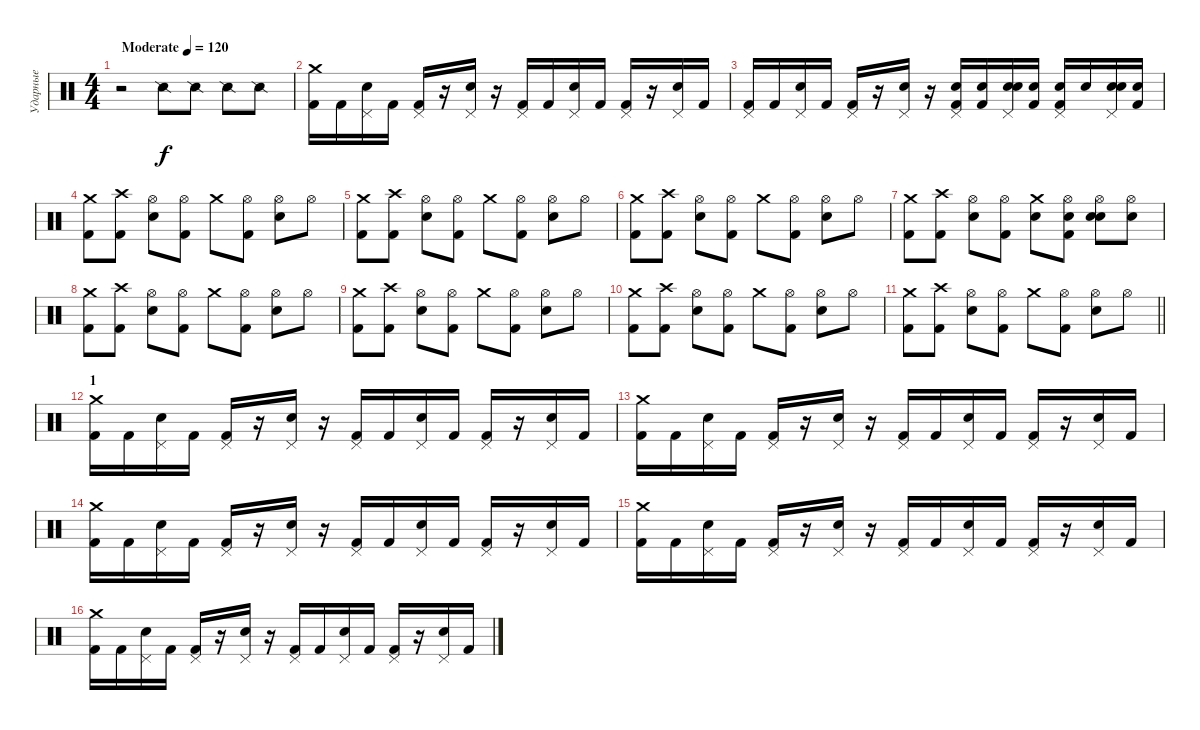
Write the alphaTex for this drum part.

\track ("Ударные" "Ударные") {instrument percussion}
\staff {score}
\articulation defaults
\ts (4 4)
\tempo (120 "Moderate")
\clef neutral
\ks c
r.2{dy f} "Snare (side stick) 2".8 "Snare (side stick) 2".8 "Snare (side stick) 2".8 "Snare (side stick) 2".8 |
("Crash medium (hit)" "Kick (hit) 2").16 "Kick (hit) 2".16 ("Pedal Hi-Hat (hit)" "Electric Snare (hit)").16 "Kick (hit) 2".16 ("Pedal Hi-Hat (hit)" "Kick (hit) 2").16 r.16 ("Pedal Hi-Hat (hit)" "Electric Snare (hit)").16 r.16 ("Pedal Hi-Hat (hit)" "Kick (hit) 2").16 "Kick (hit) 2".16 ("Pedal Hi-Hat (hit)" "Electric Snare (hit)").16 "Kick (hit) 2".16 ("Pedal Hi-Hat (hit)" "Kick (hit) 2").16 r.16 ("Pedal Hi-Hat (hit)" "Electric Snare (hit)").16 "Kick (hit) 2".16 |
("Pedal Hi-Hat (hit)" "Kick (hit) 2").16 "Kick (hit) 2".16 ("Pedal Hi-Hat (hit)" "Electric Snare (hit)").16 "Kick (hit) 2".16 ("Pedal Hi-Hat (hit)" "Kick (hit) 2").16 r.16 ("Pedal Hi-Hat (hit)" "Electric Snare (hit)").16 r.16 ("Electric Snare (hit)" "Pedal Hi-Hat (hit)" "Kick (hit) 2").16 ("Electric Snare (hit)" "Kick (hit) 2").16 ("Electric Snare (hit)" "Pedal Hi-Hat (hit)" "Electric Snare (hit)").16 ("Electric Snare (hit)" "Kick (hit) 2").16 ("Electric Snare (hit)" "Pedal Hi-Hat (hit)" "Kick (hit) 2").16 "Electric Snare (hit)".16 ("Electric Snare (hit)" "Pedal Hi-Hat (hit)" "Electric Snare (hit)").16 ("Electric Snare (hit)" "Kick (hit) 2").16 |
("Crash medium (hit)" "Kick (hit) 2").8 ("Crash high (hit)" "Kick (hit) 2").8 ("Hi-Hat (open)" "Electric Snare (hit)").8 ("Hi-Hat (open)" "Kick (hit) 2").8 "Crash medium (hit)".8 ("Hi-Hat (open)" "Kick (hit) 2").8 ("Hi-Hat (open)" "Electric Snare (hit)").8 "Hi-Hat (open)".8 |
("Crash medium (hit)" "Kick (hit) 2").8 ("Crash high (hit)" "Kick (hit) 2").8 ("Hi-Hat (open)" "Electric Snare (hit)").8 ("Hi-Hat (open)" "Kick (hit) 2").8 "Crash medium (hit)".8 ("Hi-Hat (open)" "Kick (hit) 2").8 ("Hi-Hat (open)" "Electric Snare (hit)").8 "Hi-Hat (open)".8 |
("Crash medium (hit)" "Kick (hit) 2").8 ("Crash high (hit)" "Kick (hit) 2").8 ("Hi-Hat (open)" "Electric Snare (hit)").8 ("Hi-Hat (open)" "Kick (hit) 2").8 "Crash medium (hit)".8 ("Hi-Hat (open)" "Kick (hit) 2").8 ("Hi-Hat (open)" "Electric Snare (hit)").8 "Hi-Hat (open)".8 |
("Crash medium (hit)" "Kick (hit) 2").8 ("Crash high (hit)" "Kick (hit) 2").8 ("Hi-Hat (open)" "Electric Snare (hit)").8 ("Hi-Hat (open)" "Kick (hit) 2").8 ("Crash medium (hit)" "Electric Snare (hit)").8 ("Hi-Hat (open)" "Electric Snare (hit)" "Kick (hit) 2").8 ("Hi-Hat (open)" "Electric Snare (hit)" "Electric Snare (hit)").8 ("Hi-Hat (open)" "Electric Snare (hit)").8 |
("Crash medium (hit)" "Kick (hit) 2").8 ("Crash high (hit)" "Kick (hit) 2").8 ("Hi-Hat (open)" "Electric Snare (hit)").8 ("Hi-Hat (open)" "Kick (hit) 2").8 "Crash medium (hit)".8 ("Hi-Hat (open)" "Kick (hit) 2").8 ("Hi-Hat (open)" "Electric Snare (hit)").8 "Hi-Hat (open)".8 |
("Crash medium (hit)" "Kick (hit) 2").8 ("Crash high (hit)" "Kick (hit) 2").8 ("Hi-Hat (open)" "Electric Snare (hit)").8 ("Hi-Hat (open)" "Kick (hit) 2").8 "Crash medium (hit)".8 ("Hi-Hat (open)" "Kick (hit) 2").8 ("Hi-Hat (open)" "Electric Snare (hit)").8 "Hi-Hat (open)".8 |
("Crash medium (hit)" "Kick (hit) 2").8 ("Crash high (hit)" "Kick (hit) 2").8 ("Hi-Hat (open)" "Electric Snare (hit)").8 ("Hi-Hat (open)" "Kick (hit) 2").8 "Crash medium (hit)".8 ("Hi-Hat (open)" "Kick (hit) 2").8 ("Hi-Hat (open)" "Electric Snare (hit)").8 "Hi-Hat (open)".8 |
\barLineRight lightlight
("Crash medium (hit)" "Kick (hit) 2").8 ("Crash high (hit)" "Kick (hit) 2").8 ("Hi-Hat (open)" "Electric Snare (hit)").8 ("Hi-Hat (open)" "Kick (hit) 2").8 "Crash medium (hit)".8 ("Hi-Hat (open)" "Kick (hit) 2").8 ("Hi-Hat (open)" "Electric Snare (hit)").8 "Hi-Hat (open)".8 |
\section ("" "1")
("Crash medium (hit)" "Kick (hit) 2").16 "Kick (hit) 2".16 ("Pedal Hi-Hat (hit)" "Electric Snare (hit)").16 "Kick (hit) 2".16 ("Pedal Hi-Hat (hit)" "Kick (hit) 2").16 r.16 ("Pedal Hi-Hat (hit)" "Electric Snare (hit)").16 r.16 ("Pedal Hi-Hat (hit)" "Kick (hit) 2").16 "Kick (hit) 2".16 ("Pedal Hi-Hat (hit)" "Electric Snare (hit)").16 "Kick (hit) 2".16 ("Pedal Hi-Hat (hit)" "Kick (hit) 2").16 r.16 ("Pedal Hi-Hat (hit)" "Electric Snare (hit)").16 "Kick (hit) 2".16 |
("Crash medium (hit)" "Kick (hit) 2").16 "Kick (hit) 2".16 ("Pedal Hi-Hat (hit)" "Electric Snare (hit)").16 "Kick (hit) 2".16 ("Pedal Hi-Hat (hit)" "Kick (hit) 2").16 r.16 ("Pedal Hi-Hat (hit)" "Electric Snare (hit)").16 r.16 ("Pedal Hi-Hat (hit)" "Kick (hit) 2").16 "Kick (hit) 2".16 ("Pedal Hi-Hat (hit)" "Electric Snare (hit)").16 "Kick (hit) 2".16 ("Pedal Hi-Hat (hit)" "Kick (hit) 2").16 r.16 ("Pedal Hi-Hat (hit)" "Electric Snare (hit)").16 "Kick (hit) 2".16 |
("Crash medium (hit)" "Kick (hit) 2").16 "Kick (hit) 2".16 ("Pedal Hi-Hat (hit)" "Electric Snare (hit)").16 "Kick (hit) 2".16 ("Pedal Hi-Hat (hit)" "Kick (hit) 2").16 r.16 ("Pedal Hi-Hat (hit)" "Electric Snare (hit)").16 r.16 ("Pedal Hi-Hat (hit)" "Kick (hit) 2").16 "Kick (hit) 2".16 ("Pedal Hi-Hat (hit)" "Electric Snare (hit)").16 "Kick (hit) 2".16 ("Pedal Hi-Hat (hit)" "Kick (hit) 2").16 r.16 ("Pedal Hi-Hat (hit)" "Electric Snare (hit)").16 "Kick (hit) 2".16 |
("Crash medium (hit)" "Kick (hit) 2").16 "Kick (hit) 2".16 ("Pedal Hi-Hat (hit)" "Electric Snare (hit)").16 "Kick (hit) 2".16 ("Pedal Hi-Hat (hit)" "Kick (hit) 2").16 r.16 ("Pedal Hi-Hat (hit)" "Electric Snare (hit)").16 r.16 ("Pedal Hi-Hat (hit)" "Kick (hit) 2").16 "Kick (hit) 2".16 ("Pedal Hi-Hat (hit)" "Electric Snare (hit)").16 "Kick (hit) 2".16 ("Pedal Hi-Hat (hit)" "Kick (hit) 2").16 r.16 ("Pedal Hi-Hat (hit)" "Electric Snare (hit)").16 "Kick (hit) 2".16 |
("Crash medium (hit)" "Kick (hit) 2").16 "Kick (hit) 2".16 ("Pedal Hi-Hat (hit)" "Electric Snare (hit)").16 "Kick (hit) 2".16 ("Pedal Hi-Hat (hit)" "Kick (hit) 2").16 r.16 ("Pedal Hi-Hat (hit)" "Electric Snare (hit)").16 r.16 ("Pedal Hi-Hat (hit)" "Kick (hit) 2").16 "Kick (hit) 2".16 ("Pedal Hi-Hat (hit)" "Electric Snare (hit)").16 "Kick (hit) 2".16 ("Pedal Hi-Hat (hit)" "Kick (hit) 2").16 r.16 ("Pedal Hi-Hat (hit)" "Electric Snare (hit)").16 "Kick (hit) 2".16
